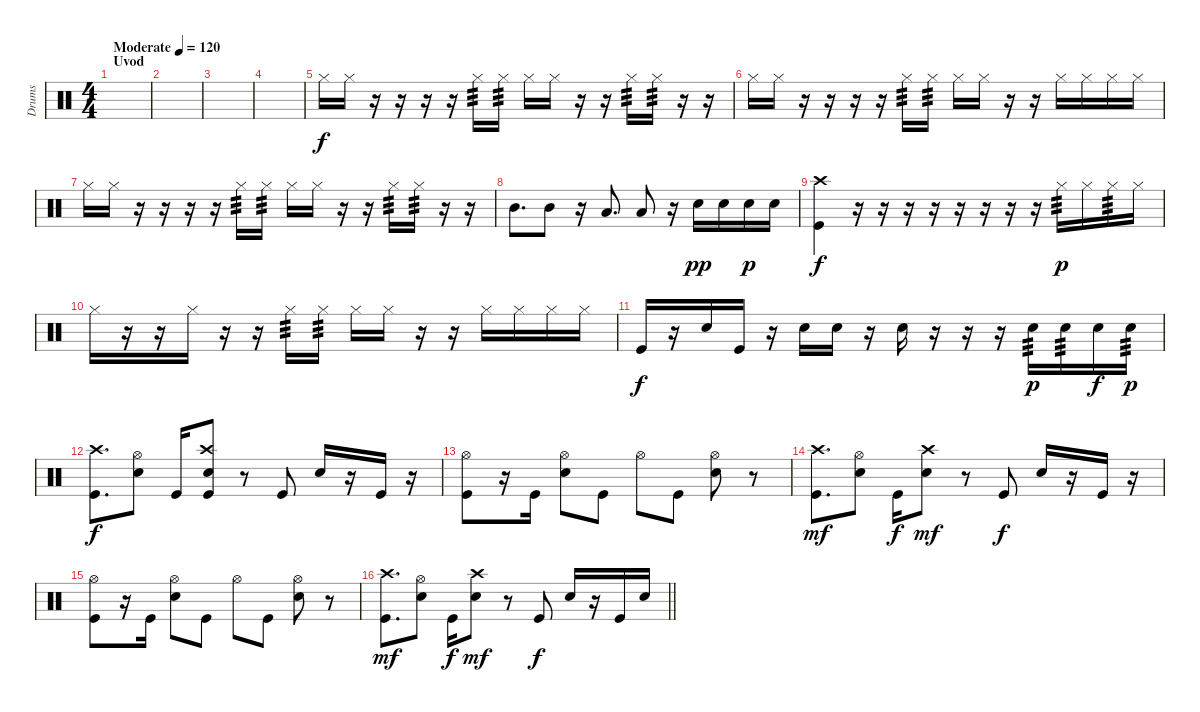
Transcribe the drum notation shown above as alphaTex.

\track ("Drums" "Drums") {instrument percussion}
\staff {score}
\articulation defaults
\ts (4 4)
\section ("" "Uvod")
\tempo (120 "Moderate")
\clef neutral
\ks c
|
|
|
|
"Hi-Hat (closed)".16 "Hi-Hat (closed)".16 r.16 r.16 r.16 r.16 "Hi-Hat (closed)".16{tp 3} "Hi-Hat (closed)".16{tp 3} "Hi-Hat (closed)".16 "Hi-Hat (closed)".16 r.16 r.16 "Hi-Hat (closed)".16{tp 3} "Hi-Hat (closed)".16{tp 3} r.16 r.16 |
"Hi-Hat (closed)".16 "Hi-Hat (closed)".16 r.16 r.16 r.16 r.16 "Hi-Hat (closed)".16{tp 3} "Hi-Hat (closed)".16{tp 3} "Hi-Hat (closed)".16 "Hi-Hat (closed)".16 r.16 r.16 "Hi-Hat (closed)".16 "Hi-Hat (closed)".16 "Hi-Hat (closed)".16 "Hi-Hat (closed)".16 |
"Hi-Hat (closed)".16 "Hi-Hat (closed)".16 r.16 r.16 r.16 r.16 "Hi-Hat (closed)".16{tp 3} "Hi-Hat (closed)".16{tp 3} "Hi-Hat (closed)".16 "Hi-Hat (closed)".16 r.16 r.16 "Hi-Hat (closed)".16{tp 3} "Hi-Hat (closed)".16{tp 3} r.16 r.16 |
"Mid Tom (hit)".8{d dy f} "Mid Tom (hit)".8 r.16 "Low Tom (hit)".8{d} "Low Tom (hit)".8 r.16 "Electric Snare (hit)".16{dy pp} "Electric Snare (hit)".16 "Electric Snare (hit)".16{dy p} "Electric Snare (hit)".16 |
("Kick (hit)" "Crash high (hit)").4{dy f} r.16 r.16 r.16 r.16 r.16 r.16 r.16 r.16 "Hi-Hat (closed)".16{tp 3 dy p} "Hi-Hat (closed)".16 "Hi-Hat (closed)".16{tp 3} "Hi-Hat (closed)".16 |
"Hi-Hat (closed)".16 r.16 r.16 "Hi-Hat (closed)".16 r.16 r.16 "Hi-Hat (closed)".16{tp 3} "Hi-Hat (closed)".16{tp 3} "Hi-Hat (closed)".16 "Hi-Hat (closed)".16 r.16 r.16 "Hi-Hat (closed)".16 "Hi-Hat (closed)".16 "Hi-Hat (closed)".16 "Hi-Hat (closed)".16 |
"Kick (hit)".16{dy f} r.16 "Snare (hit) 2".16 "Kick (hit)".16 r.16 "Electric Snare (hit)".16 "Electric Snare (hit)".16 r.16 "Electric Snare (hit)".16 r.16 r.16 r.16 "Electric Snare (hit)".16{tp 3 dy p} "Electric Snare (hit)".16{tp 3} "Electric Snare (hit)".16{dy f} "Electric Snare (hit)".16{tp 3 dy p} |
("Kick (hit)" "Crash high (hit)").8{d dy f} ("Snare (hit) 2" "Hi-Hat (open)").8 "Kick (hit)".16 ("Kick (hit)" "Snare (hit) 2" "Crash high (hit)").8 r.8 "Kick (hit)".8 "Snare (hit) 2".16 r.16 "Kick (hit)".16 r.16 |
("Kick (hit)" "Hi-Hat (open)").8 r.16 "Kick (hit)".16 ("Snare (hit) 2" "Hi-Hat (open)").8 "Kick (hit)".8 "Hi-Hat (open)".8 "Kick (hit)".8 ("Snare (hit) 2" "Hi-Hat (open)").8 r.8 |
("Kick (hit)" "Crash high (hit)").8{d dy mf} ("Snare (hit) 2" "Hi-Hat (open)").8 "Kick (hit)".16{dy f} ("Snare (hit) 2" "Crash high (hit)").8{dy mf} r.8 "Kick (hit)".8{dy f} "Snare (hit) 2".16 r.16 "Kick (hit)".16 r.16 |
("Kick (hit)" "Hi-Hat (open)").8 r.16 "Kick (hit)".16 ("Snare (hit) 2" "Hi-Hat (open)").8 "Kick (hit)".8 "Hi-Hat (open)".8 "Kick (hit)".8 ("Snare (hit) 2" "Hi-Hat (open)").8 r.8 |
\barLineRight lightlight
("Kick (hit)" "Crash high (hit)").8{d dy mf} ("Snare (hit) 2" "Hi-Hat (open)").8 "Kick (hit)".16{dy f} ("Snare (hit) 2" "Crash high (hit)").8{dy mf} r.8 "Kick (hit)".8{dy f} "Snare (hit) 2".16 r.16 "Kick (hit)".16 "Snare (hit) 2".16
